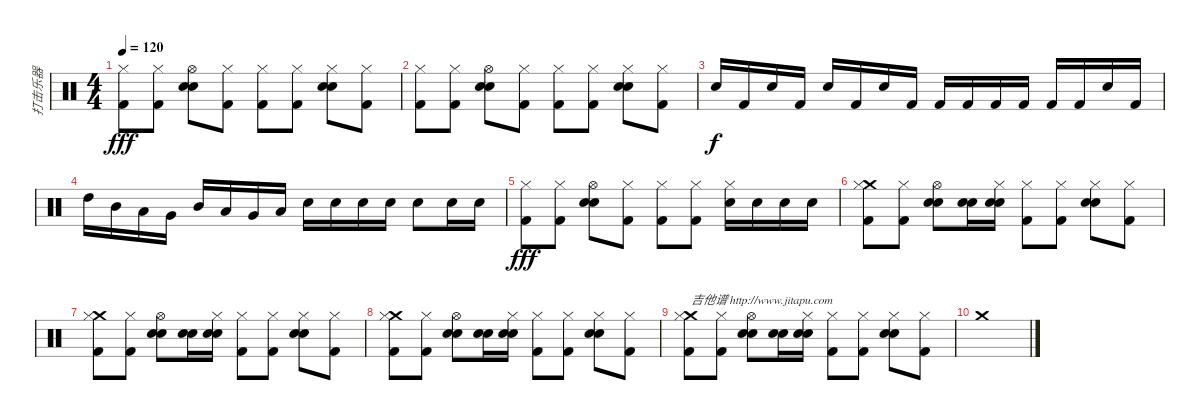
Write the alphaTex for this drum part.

\track ("打击乐器" "打击乐器") {instrument percussion}
\staff {score}
\articulation defaults
\ts (4 4)
\tempo 120
\clef neutral
\ks c
("Kick (hit) 2" "Hi-Hat (closed)").8{dy fff} ("Kick (hit) 2" "Hi-Hat (closed)").8 ("Snare (hit) 2" "Electric Snare (hit)" "Hi-Hat (open)").8 ("Kick (hit) 2" "Hi-Hat (closed)").8 ("Kick (hit) 2" "Hi-Hat (closed)").8 ("Kick (hit) 2" "Hi-Hat (closed)").8 ("Snare (hit) 2" "Electric Snare (hit)" "Hi-Hat (closed)").8 ("Kick (hit) 2" "Hi-Hat (closed)").8 |
("Kick (hit) 2" "Hi-Hat (closed)").8 ("Kick (hit) 2" "Hi-Hat (closed)").8 ("Snare (hit) 2" "Electric Snare (hit)" "Hi-Hat (open)").8 ("Kick (hit) 2" "Hi-Hat (closed)").8 ("Kick (hit) 2" "Hi-Hat (closed)").8 ("Kick (hit) 2" "Hi-Hat (closed)").8 ("Snare (hit) 2" "Electric Snare (hit)" "Hi-Hat (closed)").8 ("Kick (hit) 2" "Hi-Hat (closed)").8 |
"Snare (hit) 2".16{dy f} "Kick (hit) 2".16 "Snare (hit) 2".16 "Kick (hit) 2".16 "Snare (hit) 2".16 "Kick (hit) 2".16 "Snare (hit) 2".16 "Kick (hit) 2".16 "Kick (hit) 2".16 "Kick (hit) 2".16 "Kick (hit) 2".16 "Kick (hit) 2".16 "Kick (hit) 2".16 "Kick (hit) 2".16 "Snare (hit) 2".16 "Kick (hit) 2".16 |
"High Tom (hit)".16 "Mid Tom (hit)".16 "Low Tom (hit)".16 "Very Low Tom (hit)".16 "Mid Tom (hit)".16 "Low Tom (hit)".16 "Very Low Tom (hit)".16 "Low Floor Tom (hit)".16 "Snare (hit) 2".16 "Snare (hit) 2".16 "Snare (hit) 2".16 "Snare (hit) 2".16 "Snare (hit) 2".8 "Snare (hit) 2".16 "Snare (hit) 2".16 |
("Kick (hit) 2" "Hi-Hat (closed)").8{dy fff} ("Kick (hit) 2" "Hi-Hat (closed)").8 ("Snare (hit) 2" "Electric Snare (hit)" "Hi-Hat (open)").8 ("Kick (hit) 2" "Hi-Hat (closed)").8 ("Kick (hit) 2" "Hi-Hat (closed)").8 ("Kick (hit) 2" "Hi-Hat (closed)").8 ("Snare (hit) 2" "Hi-Hat (closed)").16 "Snare (hit) 2".16 "Snare (hit) 2".16 "Snare (hit) 2".16 |
("Crash medium (hit)" "Kick (hit) 2" "Hi-Hat (closed)").8 ("Kick (hit) 2" "Hi-Hat (closed)").8 ("Snare (hit) 2" "Electric Snare (hit)" "Hi-Hat (open)").8 ("Snare (hit) 2" "Electric Snare (hit)").16 ("Snare (hit) 2" "Electric Snare (hit)" "Hi-Hat (closed)").16 ("Kick (hit) 2" "Hi-Hat (closed)").8 ("Kick (hit) 2" "Hi-Hat (closed)").8 ("Snare (hit) 2" "Electric Snare (hit)" "Hi-Hat (closed)").8 ("Kick (hit) 2" "Hi-Hat (closed)").8 |
("Crash medium (hit)" "Kick (hit) 2" "Hi-Hat (closed)").8 ("Kick (hit) 2" "Hi-Hat (closed)").8 ("Snare (hit) 2" "Electric Snare (hit)" "Hi-Hat (open)").8 ("Snare (hit) 2" "Electric Snare (hit)").16 ("Snare (hit) 2" "Electric Snare (hit)" "Hi-Hat (closed)").16 ("Kick (hit) 2" "Hi-Hat (closed)").8 ("Kick (hit) 2" "Hi-Hat (closed)").8 ("Snare (hit) 2" "Electric Snare (hit)" "Hi-Hat (closed)").8 ("Kick (hit) 2" "Hi-Hat (closed)").8 |
("Crash medium (hit)" "Kick (hit) 2" "Hi-Hat (closed)").8 ("Kick (hit) 2" "Hi-Hat (closed)").8 ("Snare (hit) 2" "Electric Snare (hit)" "Hi-Hat (open)").8 ("Snare (hit) 2" "Electric Snare (hit)").16 ("Snare (hit) 2" "Electric Snare (hit)" "Hi-Hat (closed)").16 ("Kick (hit) 2" "Hi-Hat (closed)").8 ("Kick (hit) 2" "Hi-Hat (closed)").8 ("Snare (hit) 2" "Electric Snare (hit)" "Hi-Hat (closed)").8 ("Kick (hit) 2" "Hi-Hat (closed)").8 |
("Crash medium (hit)" "Kick (hit) 2" "Hi-Hat (closed)").8{txt "吉他谱 http://www.jitapu.com"} ("Kick (hit) 2" "Hi-Hat (closed)").8 ("Snare (hit) 2" "Electric Snare (hit)" "Hi-Hat (open)").8 ("Snare (hit) 2" "Electric Snare (hit)").16 ("Snare (hit) 2" "Electric Snare (hit)" "Hi-Hat (closed)").16 ("Kick (hit) 2" "Hi-Hat (closed)").8 ("Kick (hit) 2" "Hi-Hat (closed)").8 ("Snare (hit) 2" "Electric Snare (hit)" "Hi-Hat (closed)").8 ("Kick (hit) 2" "Hi-Hat (closed)").8 |
"Crash medium (hit)".1
